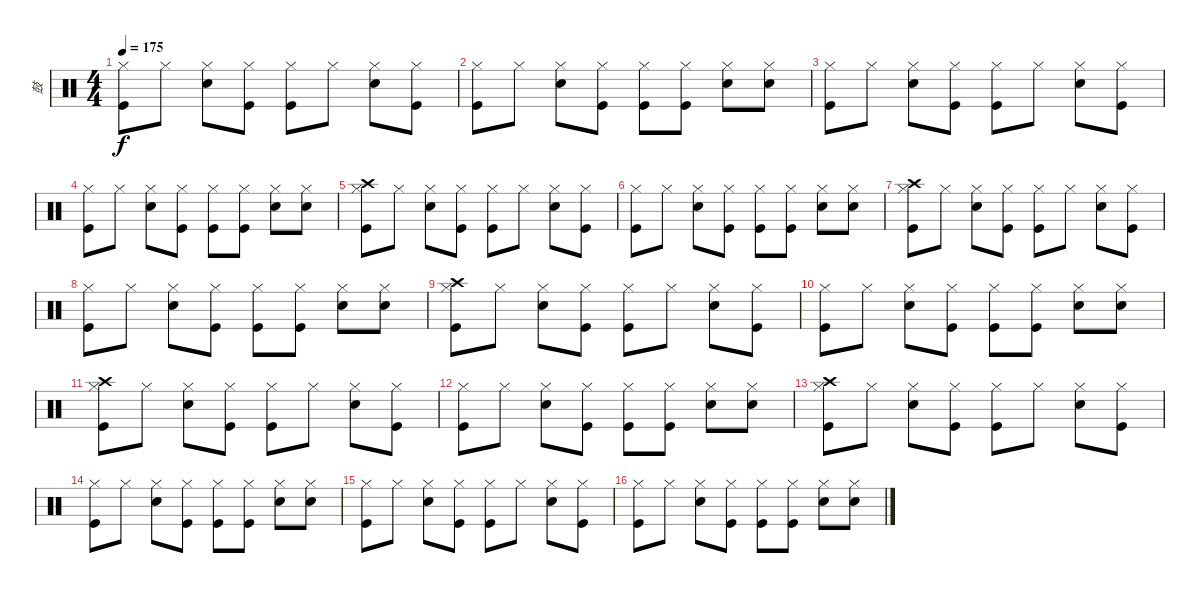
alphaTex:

\track ("鼓" "鼓") {instrument percussion}
\staff {score}
\articulation defaults
\ts (4 4)
\tempo 175
\clef neutral
\ks c
("Hi-Hat (closed)" "Kick (hit)").8{dy f} "Hi-Hat (closed)".8 ("Hi-Hat (closed)" "Snare (hit) 2").8 ("Hi-Hat (closed)" "Kick (hit)").8 ("Hi-Hat (closed)" "Kick (hit)").8 "Hi-Hat (closed)".8 ("Hi-Hat (closed)" "Snare (hit) 2").8 ("Hi-Hat (closed)" "Kick (hit)").8 |
("Hi-Hat (closed)" "Kick (hit)").8 "Hi-Hat (closed)".8 ("Hi-Hat (closed)" "Snare (hit) 2").8 ("Hi-Hat (closed)" "Kick (hit)").8 ("Hi-Hat (closed)" "Kick (hit)").8 ("Hi-Hat (closed)" "Kick (hit)").8 ("Hi-Hat (closed)" "Snare (hit) 2").8 ("Hi-Hat (closed)" "Snare (hit) 2").8 |
("Hi-Hat (closed)" "Kick (hit)").8 "Hi-Hat (closed)".8 ("Hi-Hat (closed)" "Snare (hit) 2").8 ("Hi-Hat (closed)" "Kick (hit)").8 ("Hi-Hat (closed)" "Kick (hit)").8 "Hi-Hat (closed)".8 ("Hi-Hat (closed)" "Snare (hit) 2").8 ("Hi-Hat (closed)" "Kick (hit)").8 |
("Hi-Hat (closed)" "Kick (hit)").8 "Hi-Hat (closed)".8 ("Hi-Hat (closed)" "Snare (hit) 2").8 ("Hi-Hat (closed)" "Kick (hit)").8 ("Hi-Hat (closed)" "Kick (hit)").8 ("Hi-Hat (closed)" "Kick (hit)").8 ("Hi-Hat (closed)" "Snare (hit) 2").8 ("Hi-Hat (closed)" "Snare (hit) 2").8 |
("Crash high (hit)" "Hi-Hat (closed)" "Kick (hit)").8 "Hi-Hat (closed)".8 ("Hi-Hat (closed)" "Snare (hit) 2").8 ("Hi-Hat (closed)" "Kick (hit)").8 ("Hi-Hat (closed)" "Kick (hit)").8 "Hi-Hat (closed)".8 ("Hi-Hat (closed)" "Snare (hit) 2").8 ("Hi-Hat (closed)" "Kick (hit)").8 |
("Hi-Hat (closed)" "Kick (hit)").8 "Hi-Hat (closed)".8 ("Hi-Hat (closed)" "Snare (hit) 2").8 ("Hi-Hat (closed)" "Kick (hit)").8 ("Hi-Hat (closed)" "Kick (hit)").8 ("Hi-Hat (closed)" "Kick (hit)").8 ("Hi-Hat (closed)" "Snare (hit) 2").8 ("Hi-Hat (closed)" "Snare (hit) 2").8 |
("Crash high (hit)" "Hi-Hat (closed)" "Kick (hit)").8 "Hi-Hat (closed)".8 ("Hi-Hat (closed)" "Snare (hit) 2").8 ("Hi-Hat (closed)" "Kick (hit)").8 ("Hi-Hat (closed)" "Kick (hit)").8 "Hi-Hat (closed)".8 ("Hi-Hat (closed)" "Snare (hit) 2").8 ("Hi-Hat (closed)" "Kick (hit)").8 |
("Hi-Hat (closed)" "Kick (hit)").8 "Hi-Hat (closed)".8 ("Hi-Hat (closed)" "Snare (hit) 2").8 ("Hi-Hat (closed)" "Kick (hit)").8 ("Hi-Hat (closed)" "Kick (hit)").8 ("Hi-Hat (closed)" "Kick (hit)").8 ("Hi-Hat (closed)" "Snare (hit) 2").8 ("Hi-Hat (closed)" "Snare (hit) 2").8 |
("Crash high (hit)" "Hi-Hat (closed)" "Kick (hit)").8 "Hi-Hat (closed)".8 ("Hi-Hat (closed)" "Snare (hit) 2").8 ("Hi-Hat (closed)" "Kick (hit)").8 ("Hi-Hat (closed)" "Kick (hit)").8 "Hi-Hat (closed)".8 ("Hi-Hat (closed)" "Snare (hit) 2").8 ("Hi-Hat (closed)" "Kick (hit)").8 |
("Hi-Hat (closed)" "Kick (hit)").8 "Hi-Hat (closed)".8 ("Hi-Hat (closed)" "Snare (hit) 2").8 ("Hi-Hat (closed)" "Kick (hit)").8 ("Hi-Hat (closed)" "Kick (hit)").8 ("Hi-Hat (closed)" "Kick (hit)").8 ("Hi-Hat (closed)" "Snare (hit) 2").8 ("Hi-Hat (closed)" "Snare (hit) 2").8 |
("Crash high (hit)" "Hi-Hat (closed)" "Kick (hit)").8 "Hi-Hat (closed)".8 ("Hi-Hat (closed)" "Snare (hit) 2").8 ("Hi-Hat (closed)" "Kick (hit)").8 ("Hi-Hat (closed)" "Kick (hit)").8 "Hi-Hat (closed)".8 ("Hi-Hat (closed)" "Snare (hit) 2").8 ("Hi-Hat (closed)" "Kick (hit)").8 |
("Hi-Hat (closed)" "Kick (hit)").8 "Hi-Hat (closed)".8 ("Hi-Hat (closed)" "Snare (hit) 2").8 ("Hi-Hat (closed)" "Kick (hit)").8 ("Hi-Hat (closed)" "Kick (hit)").8 ("Hi-Hat (closed)" "Kick (hit)").8 ("Hi-Hat (closed)" "Snare (hit) 2").8 ("Hi-Hat (closed)" "Snare (hit) 2").8 |
("Crash high (hit)" "Hi-Hat (closed)" "Kick (hit)").8 "Hi-Hat (closed)".8 ("Hi-Hat (closed)" "Snare (hit) 2").8 ("Hi-Hat (closed)" "Kick (hit)").8 ("Hi-Hat (closed)" "Kick (hit)").8 "Hi-Hat (closed)".8 ("Hi-Hat (closed)" "Snare (hit) 2").8 ("Hi-Hat (closed)" "Kick (hit)").8 |
("Hi-Hat (closed)" "Kick (hit)").8 "Hi-Hat (closed)".8 ("Hi-Hat (closed)" "Snare (hit) 2").8 ("Hi-Hat (closed)" "Kick (hit)").8 ("Hi-Hat (closed)" "Kick (hit)").8 ("Hi-Hat (closed)" "Kick (hit)").8 ("Hi-Hat (closed)" "Snare (hit) 2").8 ("Hi-Hat (closed)" "Snare (hit) 2").8 |
("Hi-Hat (closed)" "Kick (hit)").8 "Hi-Hat (closed)".8 ("Hi-Hat (closed)" "Snare (hit) 2").8 ("Hi-Hat (closed)" "Kick (hit)").8 ("Hi-Hat (closed)" "Kick (hit)").8 "Hi-Hat (closed)".8 ("Hi-Hat (closed)" "Snare (hit) 2").8 ("Hi-Hat (closed)" "Kick (hit)").8 |
("Hi-Hat (closed)" "Kick (hit)").8 "Hi-Hat (closed)".8 ("Hi-Hat (closed)" "Snare (hit) 2").8 ("Hi-Hat (closed)" "Kick (hit)").8 ("Hi-Hat (closed)" "Kick (hit)").8 ("Hi-Hat (closed)" "Kick (hit)").8 ("Hi-Hat (closed)" "Snare (hit) 2").8 ("Hi-Hat (closed)" "Snare (hit) 2").8
